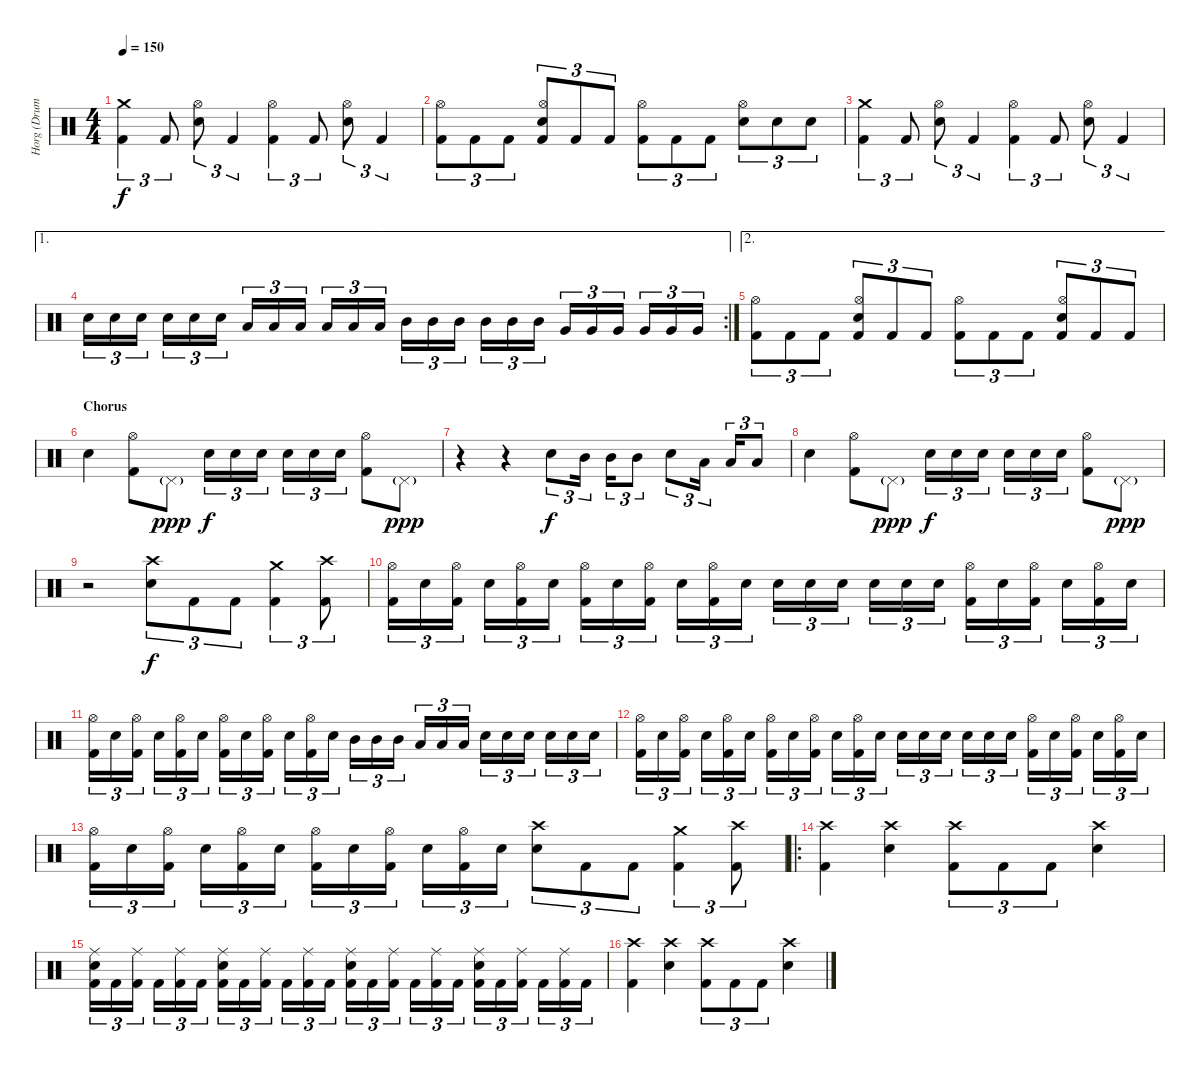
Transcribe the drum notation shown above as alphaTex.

\track ("Horg (Drums)" "Horg (Drum") {instrument percussion}
\staff {score}
\articulation defaults
\ts (4 4)
\tempo 150
\clef neutral
\ks c
("Crash medium (hit)" "Kick (hit) 2").4{tu (3 2) dy f} "Kick (hit) 2".8{tu (3 2)} ("Hi-Hat (open)" "Electric Snare (hit)").8{tu (3 2)} "Kick (hit) 2".4{tu (3 2)} ("Hi-Hat (open)" "Kick (hit) 2").4{tu (3 2)} "Kick (hit) 2".8{tu (3 2)} ("Hi-Hat (open)" "Electric Snare (hit)").8{tu (3 2)} "Kick (hit) 2".4{tu (3 2)} |
("Hi-Hat (open)" "Kick (hit) 2").8{tu (3 2)} "Kick (hit) 2".8{tu (3 2)} "Kick (hit) 2".8{tu (3 2)} ("Hi-Hat (open)" "Electric Snare (hit)" "Kick (hit) 2").8{tu (3 2)} "Kick (hit) 2".8{tu (3 2)} "Kick (hit) 2".8{tu (3 2)} ("Hi-Hat (open)" "Kick (hit) 2").8{tu (3 2)} "Kick (hit) 2".8{tu (3 2)} "Kick (hit) 2".8{tu (3 2)} ("Hi-Hat (open)" "Electric Snare (hit)").8{tu (3 2)} "Electric Snare (hit)".8{tu (3 2)} "Electric Snare (hit)".8{tu (3 2)} |
("Crash medium (hit)" "Kick (hit) 2").4{tu (3 2)} "Kick (hit) 2".8{tu (3 2)} ("Hi-Hat (open)" "Electric Snare (hit)").8{tu (3 2)} "Kick (hit) 2".4{tu (3 2)} ("Hi-Hat (open)" "Kick (hit) 2").4{tu (3 2)} "Kick (hit) 2".8{tu (3 2)} ("Hi-Hat (open)" "Electric Snare (hit)").8{tu (3 2)} "Kick (hit) 2".4{tu (3 2)} |
\ae 1
\rc 2 "Electric Snare (hit)".16{tu (3 2)} "Electric Snare (hit)".16{tu (3 2)} "Electric Snare (hit)".16{tu (3 2)} "Electric Snare (hit)".16{tu (3 2)} "Electric Snare (hit)".16{tu (3 2)} "Electric Snare (hit)".16{tu (3 2)} "Low Tom (hit)".16{tu (3 2)} "Low Tom (hit)".16{tu (3 2)} "Low Tom (hit)".16{tu (3 2)} "Low Tom (hit)".16{tu (3 2)} "Low Tom (hit)".16{tu (3 2)} "Low Tom (hit)".16{tu (3 2)} "Mid Tom (hit)".16{tu (3 2)} "Mid Tom (hit)".16{tu (3 2)} "Mid Tom (hit)".16{tu (3 2)} "Mid Tom (hit)".16{tu (3 2)} "Mid Tom (hit)".16{tu (3 2)} "Mid Tom (hit)".16{tu (3 2)} "Very Low Tom (hit)".16{tu (3 2)} "Very Low Tom (hit)".16{tu (3 2)} "Very Low Tom (hit)".16{tu (3 2)} "Very Low Tom (hit)".16{tu (3 2)} "Very Low Tom (hit)".16{tu (3 2)} "Very Low Tom (hit)".16{tu (3 2)}
|
\ae 2
("Hi-Hat (open)" "Kick (hit) 2").8{tu (3 2)} "Kick (hit) 2".8{tu (3 2)} "Kick (hit) 2".8{tu (3 2)} ("Hi-Hat (open)" "Electric Snare (hit)" "Kick (hit) 2").8{tu (3 2)} "Kick (hit) 2".8{tu (3 2)} "Kick (hit) 2".8{tu (3 2)} ("Hi-Hat (open)" "Kick (hit) 2").8{tu (3 2)} "Kick (hit) 2".8{tu (3 2)} "Kick (hit) 2".8{tu (3 2)} ("Hi-Hat (open)" "Electric Snare (hit)" "Kick (hit) 2").8{tu (3 2)} "Kick (hit) 2".8{tu (3 2)} "Kick (hit) 2".8{tu (3 2)} |
\section ("" "Chorus")
"Electric Snare (hit)".4 ("Hi-Hat (open)" "Kick (hit) 2").8 "Pedal Hi-Hat (hit)"{g}.8{dy ppp} "Electric Snare (hit)".16{tu (3 2) dy f} "Electric Snare (hit)".16{tu (3 2)} "Electric Snare (hit)".16{tu (3 2)} "Electric Snare (hit)".16{tu (3 2)} "Electric Snare (hit)".16{tu (3 2)} "Electric Snare (hit)".16{tu (3 2)} ("Hi-Hat (open)" "Kick (hit) 2").8 "Pedal Hi-Hat (hit)"{g}.8{dy ppp} |
r.4 r.4 "Electric Snare (hit)".8{tu (3 2) dy f} "Mid Tom (hit)".16{tu (3 2)} "Mid Tom (hit)".16{tu (3 2)} "Mid Tom (hit)".8{tu (3 2)} "Electric Snare (hit)".8{tu (3 2)} "Low Tom (hit)".16{tu (3 2)} "Low Tom (hit)".16{tu (3 2)} "Low Tom (hit)".8{tu (3 2)} |
"Electric Snare (hit)".4 ("Hi-Hat (open)" "Kick (hit) 2").8 "Pedal Hi-Hat (hit)"{g}.8{dy ppp} "Electric Snare (hit)".16{tu (3 2) dy f} "Electric Snare (hit)".16{tu (3 2)} "Electric Snare (hit)".16{tu (3 2)} "Electric Snare (hit)".16{tu (3 2)} "Electric Snare (hit)".16{tu (3 2)} "Electric Snare (hit)".16{tu (3 2)} ("Hi-Hat (open)" "Kick (hit) 2").8 "Pedal Hi-Hat (hit)"{g}.8{dy ppp} |
r.2 ("Crash high (hit)" "Electric Snare (hit)").8{tu (3 2) dy f} "Kick (hit) 2".8{tu (3 2)} "Kick (hit) 2".8{tu (3 2)} ("Crash medium (hit)" "Kick (hit) 2").4{tu (3 2)} ("Crash high (hit)" "Kick (hit) 2").8{tu (3 2)} |
("Hi-Hat (open)" "Kick (hit) 2").16{tu (3 2)} "Electric Snare (hit)".16{tu (3 2)} ("Hi-Hat (open)" "Kick (hit) 2").16{tu (3 2)} "Electric Snare (hit)".16{tu (3 2)} ("Hi-Hat (open)" "Kick (hit) 2").16{tu (3 2)} "Electric Snare (hit)".16{tu (3 2)} ("Hi-Hat (open)" "Kick (hit) 2").16{tu (3 2)} "Electric Snare (hit)".16{tu (3 2)} ("Hi-Hat (open)" "Kick (hit) 2").16{tu (3 2)} "Electric Snare (hit)".16{tu (3 2)} ("Hi-Hat (open)" "Kick (hit) 2").16{tu (3 2)} "Electric Snare (hit)".16{tu (3 2)} "Electric Snare (hit)".16{tu (3 2)} "Electric Snare (hit)".16{tu (3 2)} "Electric Snare (hit)".16{tu (3 2)} "Electric Snare (hit)".16{tu (3 2)} "Electric Snare (hit)".16{tu (3 2)} "Electric Snare (hit)".16{tu (3 2)} ("Hi-Hat (open)" "Kick (hit) 2").16{tu (3 2)} "Electric Snare (hit)".16{tu (3 2)} ("Hi-Hat (open)" "Kick (hit) 2").16{tu (3 2)} "Electric Snare (hit)".16{tu (3 2)} ("Hi-Hat (open)" "Kick (hit) 2").16{tu (3 2)} "Electric Snare (hit)".16{tu (3 2)} |
("Hi-Hat (open)" "Kick (hit) 2").16{tu (3 2)} "Electric Snare (hit)".16{tu (3 2)} ("Hi-Hat (open)" "Kick (hit) 2").16{tu (3 2)} "Electric Snare (hit)".16{tu (3 2)} ("Hi-Hat (open)" "Kick (hit) 2").16{tu (3 2)} "Electric Snare (hit)".16{tu (3 2)} ("Hi-Hat (open)" "Kick (hit) 2").16{tu (3 2)} "Electric Snare (hit)".16{tu (3 2)} ("Hi-Hat (open)" "Kick (hit) 2").16{tu (3 2)} "Electric Snare (hit)".16{tu (3 2)} ("Hi-Hat (open)" "Kick (hit) 2").16{tu (3 2)} "Electric Snare (hit)".16{tu (3 2)} "Mid Tom (hit)".16{tu (3 2)} "Mid Tom (hit)".16{tu (3 2)} "Mid Tom (hit)".16{tu (3 2)} "Low Tom (hit)".16{tu (3 2)} "Low Tom (hit)".16{tu (3 2)} "Low Tom (hit)".16{tu (3 2)} "Electric Snare (hit)".16{tu (3 2)} "Electric Snare (hit)".16{tu (3 2)} "Electric Snare (hit)".16{tu (3 2)} "Electric Snare (hit)".16{tu (3 2)} "Electric Snare (hit)".16{tu (3 2)} "Electric Snare (hit)".16{tu (3 2)} |
("Hi-Hat (open)" "Kick (hit) 2").16{tu (3 2)} "Electric Snare (hit)".16{tu (3 2)} ("Hi-Hat (open)" "Kick (hit) 2").16{tu (3 2)} "Electric Snare (hit)".16{tu (3 2)} ("Hi-Hat (open)" "Kick (hit) 2").16{tu (3 2)} "Electric Snare (hit)".16{tu (3 2)} ("Hi-Hat (open)" "Kick (hit) 2").16{tu (3 2)} "Electric Snare (hit)".16{tu (3 2)} ("Hi-Hat (open)" "Kick (hit) 2").16{tu (3 2)} "Electric Snare (hit)".16{tu (3 2)} ("Hi-Hat (open)" "Kick (hit) 2").16{tu (3 2)} "Electric Snare (hit)".16{tu (3 2)} "Electric Snare (hit)".16{tu (3 2)} "Electric Snare (hit)".16{tu (3 2)} "Electric Snare (hit)".16{tu (3 2)} "Electric Snare (hit)".16{tu (3 2)} "Electric Snare (hit)".16{tu (3 2)} "Electric Snare (hit)".16{tu (3 2)} ("Hi-Hat (open)" "Kick (hit) 2").16{tu (3 2)} "Electric Snare (hit)".16{tu (3 2)} ("Hi-Hat (open)" "Kick (hit) 2").16{tu (3 2)} "Electric Snare (hit)".16{tu (3 2)} ("Hi-Hat (open)" "Kick (hit) 2").16{tu (3 2)} "Electric Snare (hit)".16{tu (3 2)} |
("Hi-Hat (open)" "Kick (hit) 2").16{tu (3 2)} "Electric Snare (hit)".16{tu (3 2)} ("Hi-Hat (open)" "Kick (hit) 2").16{tu (3 2)} "Electric Snare (hit)".16{tu (3 2)} ("Hi-Hat (open)" "Kick (hit) 2").16{tu (3 2)} "Electric Snare (hit)".16{tu (3 2)} ("Hi-Hat (open)" "Kick (hit) 2").16{tu (3 2)} "Electric Snare (hit)".16{tu (3 2)} ("Hi-Hat (open)" "Kick (hit) 2").16{tu (3 2)} "Electric Snare (hit)".16{tu (3 2)} ("Hi-Hat (open)" "Kick (hit) 2").16{tu (3 2)} "Electric Snare (hit)".16{tu (3 2)} ("Crash high (hit)" "Electric Snare (hit)").8{tu (3 2)} "Kick (hit) 2".8{tu (3 2)} "Kick (hit) 2".8{tu (3 2)} ("Crash medium (hit)" "Kick (hit) 2").4{tu (3 2)} ("Crash high (hit)" "Kick (hit) 2").8{tu (3 2)} |
\ro
("Crash high (hit)" "Kick (hit) 2").4 ("Crash high (hit)" "Electric Snare (hit)").4 ("Crash high (hit)" "Kick (hit) 2").8{tu (3 2)} "Kick (hit) 2".8{tu (3 2)} "Kick (hit) 2".8{tu (3 2)} ("Crash high (hit)" "Electric Snare (hit)").4 |
("Ride (middle)" "Electric Snare (hit)" "Kick (hit) 2").16{tu (3 2)} "Kick (hit) 2".16{tu (3 2)} ("Ride (middle)" "Kick (hit) 2").16{tu (3 2)} "Kick (hit) 2".16{tu (3 2)} ("Ride (middle)" "Kick (hit) 2").16{tu (3 2)} "Kick (hit) 2".16{tu (3 2)} ("Ride (middle)" "Electric Snare (hit)" "Kick (hit) 2").16{tu (3 2)} "Kick (hit) 2".16{tu (3 2)} ("Ride (middle)" "Kick (hit) 2").16{tu (3 2)} "Kick (hit) 2".16{tu (3 2)} ("Ride (middle)" "Kick (hit) 2").16{tu (3 2)} "Kick (hit) 2".16{tu (3 2)} ("Ride (middle)" "Electric Snare (hit)" "Kick (hit) 2").16{tu (3 2)} "Kick (hit) 2".16{tu (3 2)} ("Ride (middle)" "Kick (hit) 2").16{tu (3 2)} "Kick (hit) 2".16{tu (3 2)} ("Ride (middle)" "Kick (hit) 2").16{tu (3 2)} "Kick (hit) 2".16{tu (3 2)} ("Ride (middle)" "Electric Snare (hit)" "Kick (hit) 2").16{tu (3 2)} "Kick (hit) 2".16{tu (3 2)} ("Ride (middle)" "Kick (hit) 2").16{tu (3 2)} "Kick (hit) 2".16{tu (3 2)} ("Ride (middle)" "Kick (hit) 2").16{tu (3 2)} "Kick (hit) 2".16{tu (3 2)} |
("Crash high (hit)" "Kick (hit) 2").4 ("Crash high (hit)" "Electric Snare (hit)").4 ("Crash high (hit)" "Kick (hit) 2").8{tu (3 2)} "Kick (hit) 2".8{tu (3 2)} "Kick (hit) 2".8{tu (3 2)} ("Crash high (hit)" "Electric Snare (hit)").4
